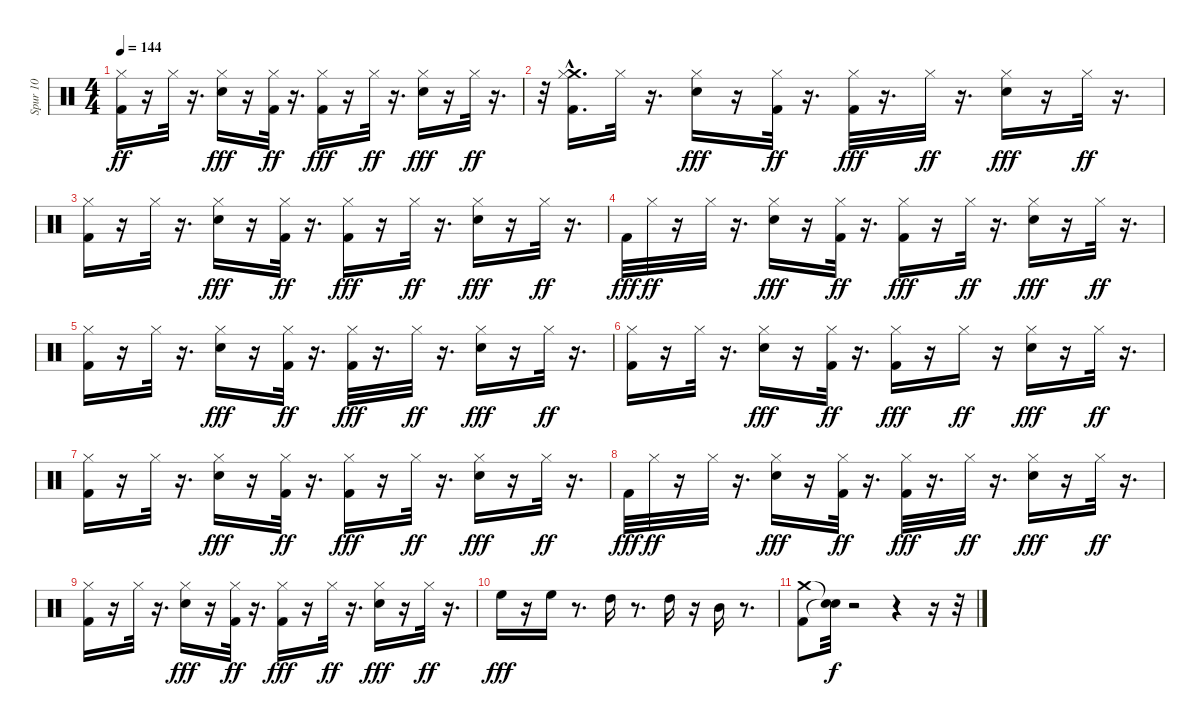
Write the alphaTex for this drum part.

\track ("Spur 10" "Spur 10") {instrument percussion}
\staff {score}
\articulation defaults
\ts (4 4)
\tempo 144
\clef neutral
\ks c
("Kick (hit) 2" "Hi-Hat (closed)").16{dy ff} r.16 "Hi-Hat (closed)".32 r.16{d} ("Snare (hit) 2" "Hi-Hat (closed)").16{dy fff} r.16 ("Kick (hit) 2" "Hi-Hat (closed)").32{dy ff} r.16{d} ("Kick (hit) 2" "Hi-Hat (closed)").16{dy fff} r.16 "Hi-Hat (closed)".32{dy ff} r.16{d} ("Snare (hit) 2" "Hi-Hat (closed)").16{dy fff} r.16 "Hi-Hat (closed)".32{dy ff} r.16{d} |
r.32 ("Crash medium (hit)"{hac} "Kick (hit) 2" "Hi-Hat (closed)").16{d} "Hi-Hat (closed)".32 r.16{d} ("Snare (hit) 2" "Hi-Hat (closed)").16{dy fff} r.16 ("Kick (hit) 2" "Hi-Hat (closed)").32{dy ff} r.16{d} ("Kick (hit) 2" "Hi-Hat (closed)").32{dy fff} r.16{d} "Hi-Hat (closed)".32{dy ff} r.16{d} ("Snare (hit) 2" "Hi-Hat (closed)").16{dy fff} r.16 "Hi-Hat (closed)".32{dy ff} r.16{d} |
("Kick (hit) 2" "Hi-Hat (closed)").16 r.16 "Hi-Hat (closed)".32 r.16{d} ("Snare (hit) 2" "Hi-Hat (closed)").16{dy fff} r.16 ("Kick (hit) 2" "Hi-Hat (closed)").32{dy ff} r.16{d} ("Kick (hit) 2" "Hi-Hat (closed)").16{dy fff} r.16 "Hi-Hat (closed)".32{dy ff} r.16{d} ("Snare (hit) 2" "Hi-Hat (closed)").16{dy fff} r.16 "Hi-Hat (closed)".32{dy ff} r.16{d} |
"Kick (hit) 2".32{dy fff} "Hi-Hat (closed)".32{dy ff} r.16 "Hi-Hat (closed)".32 r.16{d} ("Snare (hit) 2" "Hi-Hat (closed)").16{dy fff} r.16 ("Kick (hit) 2" "Hi-Hat (closed)").32{dy ff} r.16{d} ("Kick (hit) 2" "Hi-Hat (closed)").16{dy fff} r.16 "Hi-Hat (closed)".32{dy ff} r.16{d} ("Snare (hit) 2" "Hi-Hat (closed)").16{dy fff} r.16 "Hi-Hat (closed)".32{dy ff} r.16{d} |
("Kick (hit) 2" "Hi-Hat (closed)").16 r.16 "Hi-Hat (closed)".32 r.16{d} ("Snare (hit) 2" "Hi-Hat (closed)").16{dy fff} r.16 ("Kick (hit) 2" "Hi-Hat (closed)").32{dy ff} r.16{d} ("Kick (hit) 2" "Hi-Hat (closed)").32{dy fff} r.16{d} "Hi-Hat (closed)".32{dy ff} r.16{d} ("Snare (hit) 2" "Hi-Hat (closed)").16{dy fff} r.16 "Hi-Hat (closed)".32{dy ff} r.16{d} |
("Kick (hit) 2" "Hi-Hat (closed)").16 r.16 "Hi-Hat (closed)".32 r.16{d} ("Snare (hit) 2" "Hi-Hat (closed)").16{dy fff} r.16 ("Kick (hit) 2" "Hi-Hat (closed)").32{dy ff} r.16{d} ("Kick (hit) 2" "Hi-Hat (closed)").16{dy fff} r.16 "Hi-Hat (closed)".16{dy ff} r.16 ("Snare (hit) 2" "Hi-Hat (closed)").16{dy fff} r.16 "Hi-Hat (closed)".32{dy ff} r.16{d} |
("Kick (hit) 2" "Hi-Hat (closed)").16 r.16 "Hi-Hat (closed)".32 r.16{d} ("Snare (hit) 2" "Hi-Hat (closed)").16{dy fff} r.16 ("Kick (hit) 2" "Hi-Hat (closed)").32{dy ff} r.16{d} ("Kick (hit) 2" "Hi-Hat (closed)").16{dy fff} r.16 "Hi-Hat (closed)".32{dy ff} r.16{d} ("Snare (hit) 2" "Hi-Hat (closed)").16{dy fff} r.16 "Hi-Hat (closed)".32{dy ff} r.16{d} |
"Kick (hit) 2".32{dy fff} "Hi-Hat (closed)".32{dy ff} r.16 "Hi-Hat (closed)".32 r.16{d} ("Snare (hit) 2" "Hi-Hat (closed)").16{dy fff} r.16 ("Kick (hit) 2" "Hi-Hat (closed)").32{dy ff} r.16{d} ("Kick (hit) 2" "Hi-Hat (closed)").32{dy fff} r.16{d} "Hi-Hat (closed)".32{dy ff} r.16{d} ("Snare (hit) 2" "Hi-Hat (closed)").16{dy fff} r.16 "Hi-Hat (closed)".32{dy ff} r.16{d} |
("Kick (hit) 2" "Hi-Hat (closed)").16 r.16 "Hi-Hat (closed)".32 r.16{d} ("Snare (hit) 2" "Hi-Hat (closed)").16{dy fff} r.16 ("Kick (hit) 2" "Hi-Hat (closed)").32{dy ff} r.16{d} ("Kick (hit) 2" "Hi-Hat (closed)").16{dy fff} r.16 "Hi-Hat (closed)".32{dy ff} r.16{d} ("Snare (hit) 2" "Hi-Hat (closed)").16{dy fff} r.16 "Hi-Hat (closed)".32{dy ff} r.16{d} |
"High Floor Tom (hit)".16{dy fff} r.16 "High Floor Tom (hit)".16 r.8{d} "High Tom (hit)".16 r.8{d} "High Tom (hit)".16 r.16 "Mid Tom (hit)".16 r.8{d} |
("Crash medium (hit)" "Kick (hit) 2").8 ("Snare (hit)"{t} "Snare (hit)"{t}).32{dy f} r.2 r.4 r.16 r.32
